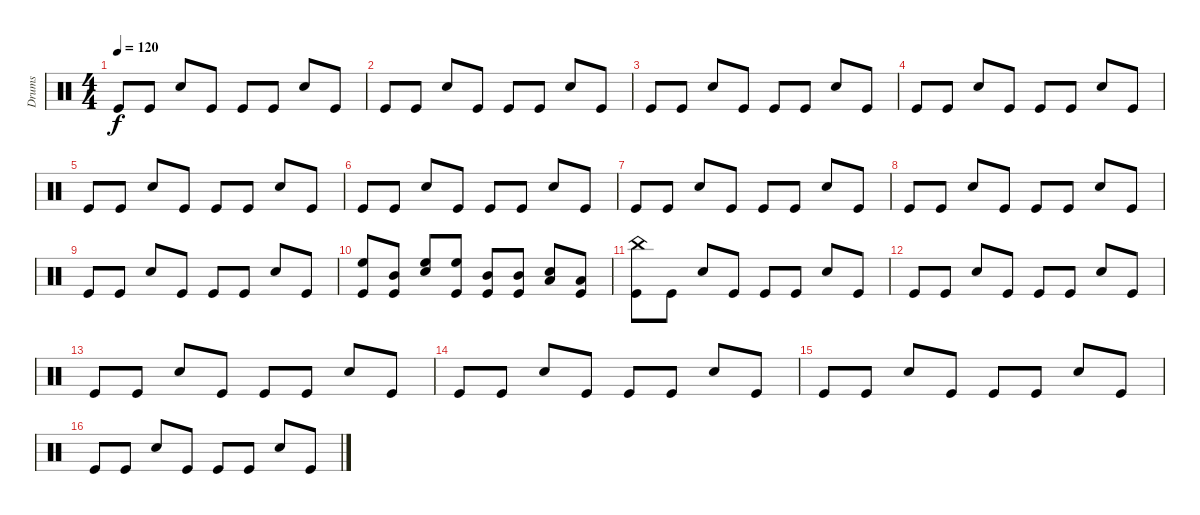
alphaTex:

\track ("Drums" "Drums") {instrument percussion}
\staff {score}
\articulation defaults
\ts (4 4)
\tempo 120
\clef neutral
\ks c "Kick (hit)".8{dy f} "Kick (hit)".8 "Snare (hit) 2".8 "Kick (hit)".8 "Kick (hit)".8 "Kick (hit)".8 "Snare (hit) 2".8 "Kick (hit)".8
|
"Kick (hit)".8 "Kick (hit)".8 "Snare (hit) 2".8 "Kick (hit)".8 "Kick (hit)".8 "Kick (hit)".8 "Snare (hit) 2".8 "Kick (hit)".8 |
"Kick (hit)".8 "Kick (hit)".8 "Snare (hit) 2".8 "Kick (hit)".8 "Kick (hit)".8 "Kick (hit)".8 "Snare (hit) 2".8 "Kick (hit)".8 |
"Kick (hit)".8 "Kick (hit)".8 "Snare (hit) 2".8 "Kick (hit)".8 "Kick (hit)".8 "Kick (hit)".8 "Snare (hit) 2".8 "Kick (hit)".8 |
"Kick (hit)".8 "Kick (hit)".8 "Snare (hit) 2".8 "Kick (hit)".8 "Kick (hit)".8 "Kick (hit)".8 "Snare (hit) 2".8 "Kick (hit)".8 |
"Kick (hit)".8 "Kick (hit)".8 "Snare (hit) 2".8 "Kick (hit)".8 "Kick (hit)".8 "Kick (hit)".8 "Snare (hit) 2".8 "Kick (hit)".8 |
"Kick (hit)".8 "Kick (hit)".8 "Snare (hit) 2".8 "Kick (hit)".8 "Kick (hit)".8 "Kick (hit)".8 "Snare (hit) 2".8 "Kick (hit)".8 |
"Kick (hit)".8 "Kick (hit)".8 "Snare (hit) 2".8 "Kick (hit)".8 "Kick (hit)".8 "Kick (hit)".8 "Snare (hit) 2".8 "Kick (hit)".8 |
"Kick (hit)".8 "Kick (hit)".8 "Snare (hit) 2".8 "Kick (hit)".8 "Kick (hit)".8 "Kick (hit)".8 "Snare (hit) 2".8 "Kick (hit)".8 |
("High Floor Tom (hit)" "Kick (hit)").8 ("Mid Tom (hit)" "Kick (hit)").8 ("High Floor Tom (hit)" "Snare (hit) 2").8 ("High Floor Tom (hit)" "Kick (hit)").8 ("Mid Tom (hit)" "Kick (hit)").8 ("Mid Tom (hit)" "Kick (hit)").8 ("Low Floor Tom (hit)" "Snare (hit) 2").8 ("Low Floor Tom (hit)" "Kick (hit)").8 |
("China (hit)" "Kick (hit)").8 "Kick (hit)".8 "Snare (hit) 2".8 "Kick (hit)".8 "Kick (hit)".8 "Kick (hit)".8 "Snare (hit) 2".8 "Kick (hit)".8 |
"Kick (hit)".8 "Kick (hit)".8 "Snare (hit) 2".8 "Kick (hit)".8 "Kick (hit)".8 "Kick (hit)".8 "Snare (hit) 2".8 "Kick (hit)".8 |
"Kick (hit)".8 "Kick (hit)".8 "Snare (hit) 2".8 "Kick (hit)".8 "Kick (hit)".8 "Kick (hit)".8 "Snare (hit) 2".8 "Kick (hit)".8 |
"Kick (hit)".8 "Kick (hit)".8 "Snare (hit) 2".8 "Kick (hit)".8 "Kick (hit)".8 "Kick (hit)".8 "Snare (hit) 2".8 "Kick (hit)".8 |
"Kick (hit)".8 "Kick (hit)".8 "Snare (hit) 2".8 "Kick (hit)".8 "Kick (hit)".8 "Kick (hit)".8 "Snare (hit) 2".8 "Kick (hit)".8 |
"Kick (hit)".8 "Kick (hit)".8 "Snare (hit) 2".8 "Kick (hit)".8 "Kick (hit)".8 "Kick (hit)".8 "Snare (hit) 2".8 "Kick (hit)".8
